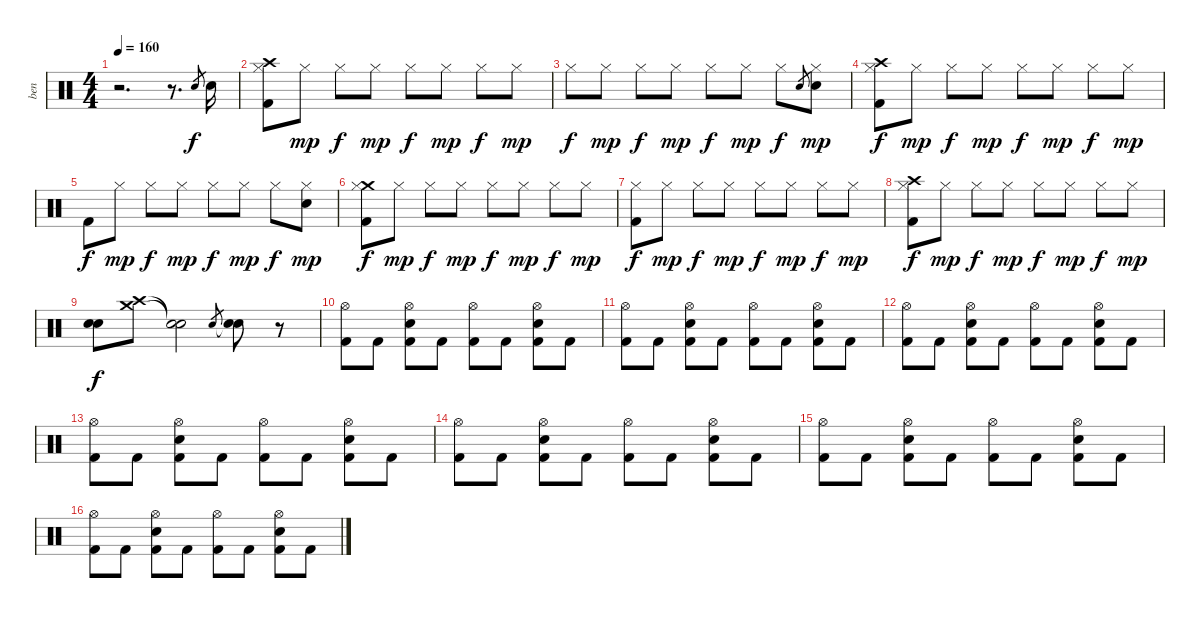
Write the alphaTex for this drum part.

\track ("ben" "ben") {instrument percussion}
\staff {score}
\articulation defaults
\ts (4 4)
\tempo 160
\clef neutral
\ks c
r.2{d dy f} r.8{d} "Snare (hit) 2".8{gr} "Electric Snare (hit)".16 |
("Crash high (hit)" "Hi-Hat (closed)" "Kick (hit) 2").8 "Hi-Hat (closed)".8{dy mp} "Hi-Hat (closed)".8{dy f} "Hi-Hat (closed)".8{dy mp} "Hi-Hat (closed)".8{dy f} "Hi-Hat (closed)".8{dy mp} "Hi-Hat (closed)".8{dy f} "Hi-Hat (closed)".8{dy mp} |
"Hi-Hat (closed)".8{dy f} "Hi-Hat (closed)".8{dy mp} "Hi-Hat (closed)".8{dy f} "Hi-Hat (closed)".8{dy mp} "Hi-Hat (closed)".8{dy f} "Hi-Hat (closed)".8{dy mp} "Hi-Hat (closed)".8{dy f} "Snare (hit) 2".8{gr} ("Electric Snare (hit)" "Hi-Hat (closed)").8{dy mp} |
("Crash high (hit)" "Hi-Hat (closed)" "Kick (hit) 2").8{dy f} "Hi-Hat (closed)".8{dy mp} "Hi-Hat (closed)".8{dy f} "Hi-Hat (closed)".8{dy mp} "Hi-Hat (closed)".8{dy f} "Hi-Hat (closed)".8{dy mp} "Hi-Hat (closed)".8{dy f} "Hi-Hat (closed)".8{dy mp} |
"Kick (hit) 2".8{dy f} "Hi-Hat (closed)".8{dy mp} "Hi-Hat (closed)".8{dy f} "Hi-Hat (closed)".8{dy mp} "Hi-Hat (closed)".8{dy f} "Hi-Hat (closed)".8{dy mp} "Hi-Hat (closed)".8{dy f} ("Electric Snare (hit)" "Hi-Hat (closed)").8{dy mp} |
("Crash medium (hit)" "Kick (hit) 2" "Hi-Hat (closed)").8{dy f} "Hi-Hat (closed)".8{dy mp} "Hi-Hat (closed)".8{dy f} "Hi-Hat (closed)".8{dy mp} "Hi-Hat (closed)".8{dy f} "Hi-Hat (closed)".8{dy mp} "Hi-Hat (closed)".8{dy f} "Hi-Hat (closed)".8{dy mp} |
("Hi-Hat (closed)" "Kick (hit) 2").8{dy f} "Hi-Hat (closed)".8{dy mp} "Hi-Hat (closed)".8{dy f} "Hi-Hat (closed)".8{dy mp} "Hi-Hat (closed)".8{dy f} "Hi-Hat (closed)".8{dy mp} "Hi-Hat (closed)".8{dy f} "Hi-Hat (closed)".8{dy mp} |
("Crash high (hit)" "Hi-Hat (closed)" "Kick (hit) 2").8{dy f} "Hi-Hat (closed)".8{dy mp} "Hi-Hat (closed)".8{dy f} "Hi-Hat (closed)".8{dy mp} "Hi-Hat (closed)".8{dy f} "Hi-Hat (closed)".8{dy mp} "Hi-Hat (closed)".8{dy f} "Hi-Hat (closed)".8{dy mp} |
("Electric Snare (hit)" "Snare (hit) 2").8{dy f} ("Crash medium (hit)" "Crash high (hit)").8 ("Snare (hit)"{t} "Snare (hit)"{t}).2 "Electric Snare (hit)".8{gr} ("Snare (hit)"{t} "Electric Snare (hit)").8 r.8 |
("Hi-Hat (open)" "Kick (hit) 2").8 "Kick (hit) 2".8 ("Hi-Hat (open)" "Electric Snare (hit)" "Kick (hit) 2").8 "Kick (hit) 2".8 ("Hi-Hat (open)" "Kick (hit) 2").8 "Kick (hit) 2".8 ("Hi-Hat (open)" "Electric Snare (hit)" "Kick (hit) 2").8 "Kick (hit) 2".8 |
("Hi-Hat (open)" "Kick (hit) 2").8 "Kick (hit) 2".8 ("Hi-Hat (open)" "Electric Snare (hit)" "Kick (hit) 2").8 "Kick (hit) 2".8 ("Hi-Hat (open)" "Kick (hit) 2").8 "Kick (hit) 2".8 ("Hi-Hat (open)" "Electric Snare (hit)" "Kick (hit) 2").8 "Kick (hit) 2".8 |
("Hi-Hat (open)" "Kick (hit) 2").8 "Kick (hit) 2".8 ("Hi-Hat (open)" "Electric Snare (hit)" "Kick (hit) 2").8 "Kick (hit) 2".8 ("Hi-Hat (open)" "Kick (hit) 2").8 "Kick (hit) 2".8 ("Hi-Hat (open)" "Electric Snare (hit)" "Kick (hit) 2").8 "Kick (hit) 2".8 |
("Hi-Hat (open)" "Kick (hit) 2").8 "Kick (hit) 2".8 ("Hi-Hat (open)" "Electric Snare (hit)" "Kick (hit) 2").8 "Kick (hit) 2".8 ("Hi-Hat (open)" "Kick (hit) 2").8 "Kick (hit) 2".8 ("Hi-Hat (open)" "Electric Snare (hit)" "Kick (hit) 2").8 "Kick (hit) 2".8 |
("Hi-Hat (open)" "Kick (hit) 2").8 "Kick (hit) 2".8 ("Hi-Hat (open)" "Electric Snare (hit)" "Kick (hit) 2").8 "Kick (hit) 2".8 ("Hi-Hat (open)" "Kick (hit) 2").8 "Kick (hit) 2".8 ("Hi-Hat (open)" "Electric Snare (hit)" "Kick (hit) 2").8 "Kick (hit) 2".8 |
("Hi-Hat (open)" "Kick (hit) 2").8 "Kick (hit) 2".8 ("Hi-Hat (open)" "Electric Snare (hit)" "Kick (hit) 2").8 "Kick (hit) 2".8 ("Hi-Hat (open)" "Kick (hit) 2").8 "Kick (hit) 2".8 ("Hi-Hat (open)" "Electric Snare (hit)" "Kick (hit) 2").8 "Kick (hit) 2".8 |
("Hi-Hat (open)" "Kick (hit) 2").8 "Kick (hit) 2".8 ("Hi-Hat (open)" "Electric Snare (hit)" "Kick (hit) 2").8 "Kick (hit) 2".8 ("Hi-Hat (open)" "Kick (hit) 2").8 "Kick (hit) 2".8 ("Hi-Hat (open)" "Electric Snare (hit)" "Kick (hit) 2").8 "Kick (hit) 2".8
